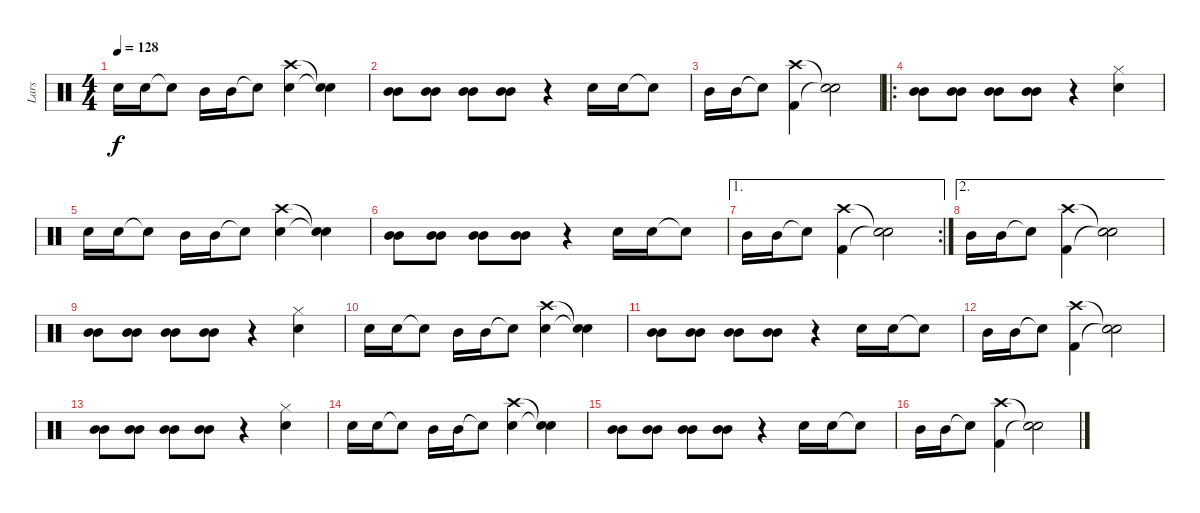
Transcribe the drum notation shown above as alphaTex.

\track ("Lars" "Lars") {instrument percussion}
\staff {score}
\articulation defaults
\ts (4 4)
\tempo 128
\clef neutral
\ks c "Electric Snare (hit)".16{dy f} "Electric Snare (hit)".16 "Snare (hit)"{t}.8 "Mid Tom (hit)".16 "Mid Tom (hit)".16 "Snare (hit)"{t}.8
("Crash high (hit)" "Electric Snare (hit)").4 ("Snare (hit)"{t} "Snare (hit)"{t}).4 |
("Mid Tom (hit)" "Mid Tom (hit)").8 ("Mid Tom (hit)" "Mid Tom (hit)").8 ("Mid Tom (hit)" "Mid Tom (hit)").8 ("Mid Tom (hit)" "Mid Tom (hit)").8 r.4 "Electric Snare (hit)".16 "Electric Snare (hit)".16 "Snare (hit)"{t}.8 |
"Mid Tom (hit)".16 "Mid Tom (hit)".16 "Snare (hit)"{t}.8 ("Crash high (hit)" "Kick (hit) 2").4 ("Snare (hit)"{t} "Snare (hit)"{t}).2 |
\ro
("Mid Tom (hit)" "Mid Tom (hit)").8 ("Mid Tom (hit)" "Mid Tom (hit)").8 ("Mid Tom (hit)" "Mid Tom (hit)").8 ("Mid Tom (hit)" "Mid Tom (hit)").8 r.4 ("Hi-Hat (closed)" "Electric Snare (hit)").4 |
"Electric Snare (hit)".16 "Electric Snare (hit)".16 "Snare (hit)"{t}.8 "Mid Tom (hit)".16 "Mid Tom (hit)".16 "Snare (hit)"{t}.8 ("Crash high (hit)" "Electric Snare (hit)").4 ("Snare (hit)"{t} "Snare (hit)"{t}).4 |
("Mid Tom (hit)" "Mid Tom (hit)").8 ("Mid Tom (hit)" "Mid Tom (hit)").8 ("Mid Tom (hit)" "Mid Tom (hit)").8 ("Mid Tom (hit)" "Mid Tom (hit)").8 r.4 "Electric Snare (hit)".16 "Electric Snare (hit)".16 "Snare (hit)"{t}.8 |
\ae 1
\rc 2 "Mid Tom (hit)".16 "Mid Tom (hit)".16 "Snare (hit)"{t}.8
("Crash high (hit)" "Kick (hit) 2").4 ("Snare (hit)"{t} "Snare (hit)"{t}).2 |
\ae 2 "Mid Tom (hit)".16 "Mid Tom (hit)".16 "Snare (hit)"{t}.8
("Crash high (hit)" "Kick (hit) 2").4 ("Snare (hit)"{t} "Snare (hit)"{t}).2 |
("Mid Tom (hit)" "Mid Tom (hit)").8 ("Mid Tom (hit)" "Mid Tom (hit)").8 ("Mid Tom (hit)" "Mid Tom (hit)").8 ("Mid Tom (hit)" "Mid Tom (hit)").8 r.4 ("Hi-Hat (closed)" "Electric Snare (hit)").4 |
"Electric Snare (hit)".16 "Electric Snare (hit)".16 "Snare (hit)"{t}.8 "Mid Tom (hit)".16 "Mid Tom (hit)".16 "Snare (hit)"{t}.8 ("Crash high (hit)" "Electric Snare (hit)").4 ("Snare (hit)"{t} "Snare (hit)"{t}).4 |
("Mid Tom (hit)" "Mid Tom (hit)").8 ("Mid Tom (hit)" "Mid Tom (hit)").8 ("Mid Tom (hit)" "Mid Tom (hit)").8 ("Mid Tom (hit)" "Mid Tom (hit)").8 r.4 "Electric Snare (hit)".16 "Electric Snare (hit)".16 "Snare (hit)"{t}.8 |
"Mid Tom (hit)".16 "Mid Tom (hit)".16 "Snare (hit)"{t}.8 ("Crash high (hit)" "Kick (hit) 2").4 ("Snare (hit)"{t} "Snare (hit)"{t}).2 |
("Mid Tom (hit)" "Mid Tom (hit)").8 ("Mid Tom (hit)" "Mid Tom (hit)").8 ("Mid Tom (hit)" "Mid Tom (hit)").8 ("Mid Tom (hit)" "Mid Tom (hit)").8 r.4 ("Hi-Hat (closed)" "Electric Snare (hit)").4 |
"Electric Snare (hit)".16 "Electric Snare (hit)".16 "Snare (hit)"{t}.8 "Mid Tom (hit)".16 "Mid Tom (hit)".16 "Snare (hit)"{t}.8 ("Crash high (hit)" "Electric Snare (hit)").4 ("Snare (hit)"{t} "Snare (hit)"{t}).4 |
("Mid Tom (hit)" "Mid Tom (hit)").8 ("Mid Tom (hit)" "Mid Tom (hit)").8 ("Mid Tom (hit)" "Mid Tom (hit)").8 ("Mid Tom (hit)" "Mid Tom (hit)").8 r.4 "Electric Snare (hit)".16 "Electric Snare (hit)".16 "Snare (hit)"{t}.8 |
"Mid Tom (hit)".16 "Mid Tom (hit)".16 "Snare (hit)"{t}.8 ("Crash high (hit)" "Kick (hit) 2").4 ("Snare (hit)"{t} "Snare (hit)"{t}).2
